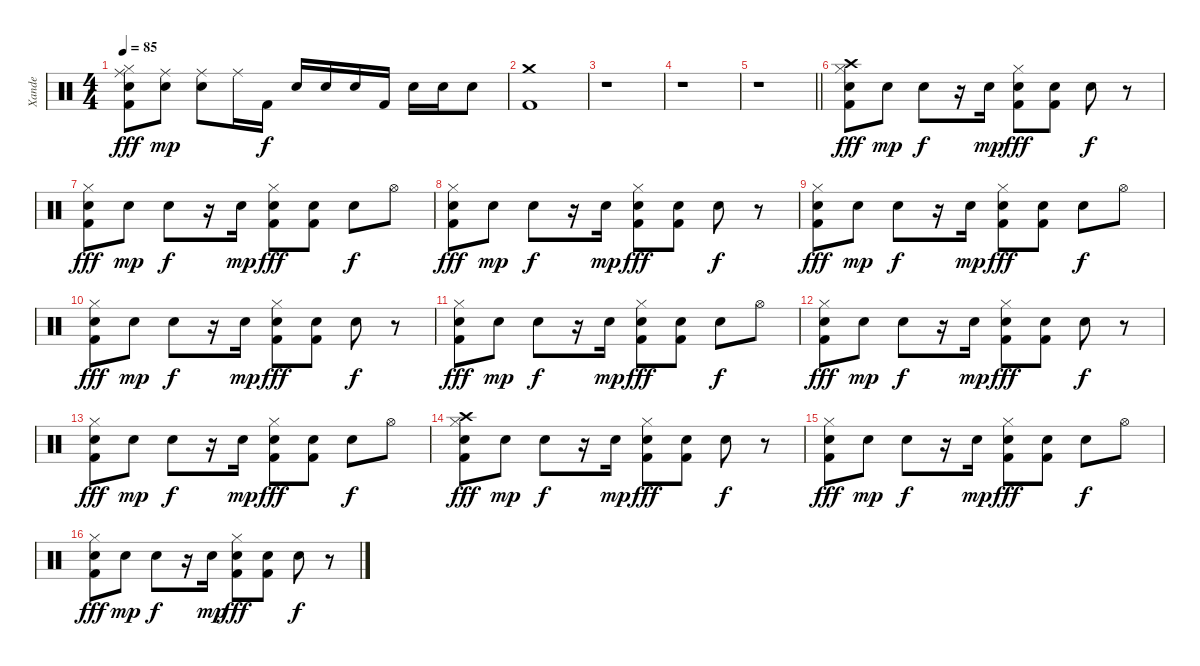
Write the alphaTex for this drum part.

\track ("Xande" "Xande") {instrument percussion}
\staff {score}
\articulation defaults
\ts (4 4)
\tempo 85
\clef neutral
\ks c
("Ride (middle)" "Hi-Hat (closed)" "Snare (hit) 2" "Kick (hit) 2").8{dy fff} ("Ride (middle)" "Snare (hit) 2").8{dy mp} ("Ride (middle)" "Electric Snare (hit)").8 "Ride (middle)".16 "Kick (hit) 2".16{dy f} "Electric Snare (hit)".16 "Electric Snare (hit)".16 "Electric Snare (hit)".16 "Kick (hit) 2".16 "Electric Snare (hit)".16 "Electric Snare (hit)".16 "Electric Snare (hit)".8 |
("Crash medium (hit)" "Kick (hit) 2").1 |
r.1 |
r.1 |
\barLineRight lightlight
r.1 |
("Crash high (hit)" "Hi-Hat (closed)" "Snare (hit) 2" "Kick (hit) 2").8{dy fff} "Snare (hit) 2".8{dy mp} "Electric Snare (hit)".8{dy f} r.16 "Snare (hit) 2".16{dy mp} ("Hi-Hat (closed)" "Snare (hit) 2" "Kick (hit) 2").8{dy fff} ("Snare (hit) 2" "Kick (hit) 2").8 "Electric Snare (hit)".8{dy f} r.8 |
("Hi-Hat (closed)" "Snare (hit) 2" "Kick (hit) 2").8{dy fff} "Snare (hit) 2".8{dy mp} "Electric Snare (hit)".8{dy f} r.16 "Snare (hit) 2".16{dy mp} ("Hi-Hat (closed)" "Snare (hit) 2" "Kick (hit) 2").8{dy fff} ("Snare (hit) 2" "Kick (hit) 2").8 "Electric Snare (hit)".8{dy f} "Hi-Hat (open)".8 |
("Hi-Hat (closed)" "Snare (hit) 2" "Kick (hit) 2").8{dy fff} "Snare (hit) 2".8{dy mp} "Electric Snare (hit)".8{dy f} r.16 "Snare (hit) 2".16{dy mp} ("Hi-Hat (closed)" "Snare (hit) 2" "Kick (hit) 2").8{dy fff} ("Snare (hit) 2" "Kick (hit) 2").8 "Electric Snare (hit)".8{dy f} r.8 |
("Hi-Hat (closed)" "Snare (hit) 2" "Kick (hit) 2").8{dy fff} "Snare (hit) 2".8{dy mp} "Electric Snare (hit)".8{dy f} r.16 "Snare (hit) 2".16{dy mp} ("Hi-Hat (closed)" "Snare (hit) 2" "Kick (hit) 2").8{dy fff} ("Snare (hit) 2" "Kick (hit) 2").8 "Electric Snare (hit)".8{dy f} "Hi-Hat (open)".8 |
("Hi-Hat (closed)" "Snare (hit) 2" "Kick (hit) 2").8{dy fff} "Snare (hit) 2".8{dy mp} "Electric Snare (hit)".8{dy f} r.16 "Snare (hit) 2".16{dy mp} ("Hi-Hat (closed)" "Snare (hit) 2" "Kick (hit) 2").8{dy fff} ("Snare (hit) 2" "Kick (hit) 2").8 "Electric Snare (hit)".8{dy f} r.8 |
("Hi-Hat (closed)" "Snare (hit) 2" "Kick (hit) 2").8{dy fff} "Snare (hit) 2".8{dy mp} "Electric Snare (hit)".8{dy f} r.16 "Snare (hit) 2".16{dy mp} ("Hi-Hat (closed)" "Snare (hit) 2" "Kick (hit) 2").8{dy fff} ("Snare (hit) 2" "Kick (hit) 2").8 "Electric Snare (hit)".8{dy f} "Hi-Hat (open)".8 |
("Hi-Hat (closed)" "Snare (hit) 2" "Kick (hit) 2").8{dy fff} "Snare (hit) 2".8{dy mp} "Electric Snare (hit)".8{dy f} r.16 "Snare (hit) 2".16{dy mp} ("Hi-Hat (closed)" "Snare (hit) 2" "Kick (hit) 2").8{dy fff} ("Snare (hit) 2" "Kick (hit) 2").8 "Electric Snare (hit)".8{dy f} r.8 |
("Hi-Hat (closed)" "Snare (hit) 2" "Kick (hit) 2").8{dy fff} "Snare (hit) 2".8{dy mp} "Electric Snare (hit)".8{dy f} r.16 "Snare (hit) 2".16{dy mp} ("Hi-Hat (closed)" "Snare (hit) 2" "Kick (hit) 2").8{dy fff} ("Snare (hit) 2" "Kick (hit) 2").8 "Electric Snare (hit)".8{dy f} "Hi-Hat (open)".8 |
("Crash high (hit)" "Hi-Hat (closed)" "Snare (hit) 2" "Kick (hit) 2").8{dy fff} "Snare (hit) 2".8{dy mp} "Electric Snare (hit)".8{dy f} r.16 "Snare (hit) 2".16{dy mp} ("Hi-Hat (closed)" "Snare (hit) 2" "Kick (hit) 2").8{dy fff} ("Snare (hit) 2" "Kick (hit) 2").8 "Electric Snare (hit)".8{dy f} r.8 |
("Hi-Hat (closed)" "Snare (hit) 2" "Kick (hit) 2").8{dy fff} "Snare (hit) 2".8{dy mp} "Electric Snare (hit)".8{dy f} r.16 "Snare (hit) 2".16{dy mp} ("Hi-Hat (closed)" "Snare (hit) 2" "Kick (hit) 2").8{dy fff} ("Snare (hit) 2" "Kick (hit) 2").8 "Electric Snare (hit)".8{dy f} "Hi-Hat (open)".8 |
("Hi-Hat (closed)" "Snare (hit) 2" "Kick (hit) 2").8{dy fff} "Snare (hit) 2".8{dy mp} "Electric Snare (hit)".8{dy f} r.16 "Snare (hit) 2".16{dy mp} ("Hi-Hat (closed)" "Snare (hit) 2" "Kick (hit) 2").8{dy fff} ("Snare (hit) 2" "Kick (hit) 2").8 "Electric Snare (hit)".8{dy f} r.8
